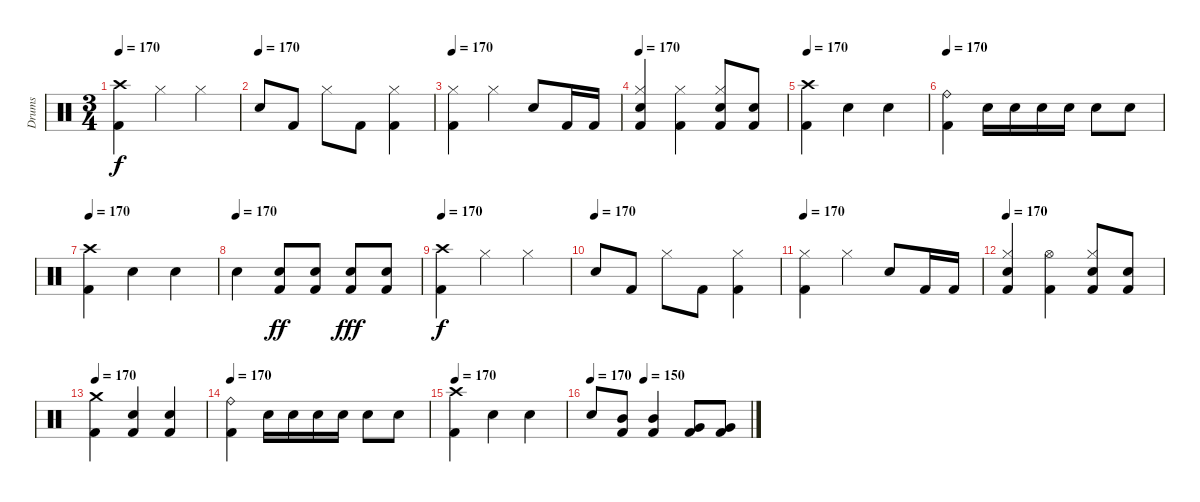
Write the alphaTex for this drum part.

\track ("Drums" "Drums") {instrument percussion}
\staff {score}
\articulation defaults
\ts (3 4)
\tempo 170
\clef neutral
\ks c
("Crash high (hit)" "Kick (hit) 2").4{dy f} "Hi-Hat (closed)".4 "Hi-Hat (closed)".4 |
\tempo (170)
"Electric Snare (hit)".8 "Kick (hit) 2".8 "Hi-Hat (closed)".8 "Kick (hit) 2".8 ("Hi-Hat (closed)" "Kick (hit) 2").4 |
\tempo 170
("Hi-Hat (closed)" "Kick (hit) 2").4 "Hi-Hat (closed)".4 "Electric Snare (hit)".8 "Kick (hit) 2".16 "Kick (hit) 2".16 |
\tempo 170
("Hi-Hat (closed)" "Electric Snare (hit)" "Kick (hit) 2").4 ("Hi-Hat (closed)" "Kick (hit) 2").4 ("Hi-Hat (closed)" "Electric Snare (hit)" "Kick (hit) 2").8 ("Electric Snare (hit)" "Kick (hit) 2").8 |
\tempo 170
("Crash high (hit)" "Kick (hit) 2").4 "Electric Snare (hit)".4 "Electric Snare (hit)".4 |
\tempo 170
("Ride (bell)" "Kick (hit) 2").4 "Electric Snare (hit)".16 "Electric Snare (hit)".16 "Electric Snare (hit)".16 "Electric Snare (hit)".16 "Electric Snare (hit)".8 "Electric Snare (hit)".8 |
\tempo 170
("Crash high (hit)" "Kick (hit) 2").4 "Electric Snare (hit)".4 "Electric Snare (hit)".4 |
\tempo (170)
"Electric Snare (hit)".4 ("Electric Snare (hit)" "Kick (hit) 2").8{dy ff} ("Electric Snare (hit)" "Kick (hit) 2").8 ("Electric Snare (hit)" "Kick (hit) 2").8{dy fff} ("Electric Snare (hit)" "Kick (hit) 2").8 |
\tempo 170
("Crash high (hit)" "Kick (hit) 2").4{dy f} "Hi-Hat (closed)".4 "Hi-Hat (closed)".4 |
\tempo (170)
"Electric Snare (hit)".8 "Kick (hit) 2".8 "Hi-Hat (closed)".8 "Kick (hit) 2".8 ("Hi-Hat (closed)" "Kick (hit) 2").4 |
\tempo 170
("Hi-Hat (closed)" "Kick (hit) 2").4 "Hi-Hat (closed)".4 "Electric Snare (hit)".8 "Kick (hit) 2".16 "Kick (hit) 2".16 |
\tempo 170
("Hi-Hat (closed)" "Electric Snare (hit)" "Kick (hit) 2").4 ("Hi-Hat (open)" "Kick (hit) 2").4 ("Hi-Hat (closed)" "Electric Snare (hit)" "Kick (hit) 2").8 ("Electric Snare (hit)" "Kick (hit) 2").8 |
\tempo 170
("Crash medium (hit)" "Kick (hit) 2").4 ("Electric Snare (hit)" "Kick (hit) 2").4 ("Electric Snare (hit)" "Kick (hit) 2").4 |
\tempo 170
("Ride (bell)" "Kick (hit) 2").4 "Electric Snare (hit)".16 "Electric Snare (hit)".16 "Electric Snare (hit)".16 "Electric Snare (hit)".16 "Electric Snare (hit)".8 "Electric Snare (hit)".8 |
\tempo 170
("Crash high (hit)" "Kick (hit) 2").4 "Electric Snare (hit)".4 "Electric Snare (hit)".4 |
\tempo 170
\tempo (150 0.3333333333333333)
"Electric Snare (hit)".8 ("Mid Tom (hit)" "Kick (hit) 2").8 ("Mid Tom (hit)" "Kick (hit) 2").4 ("Very Low Tom (hit)" "Kick (hit) 2").8 ("Very Low Tom (hit)" "Kick (hit) 2").8
